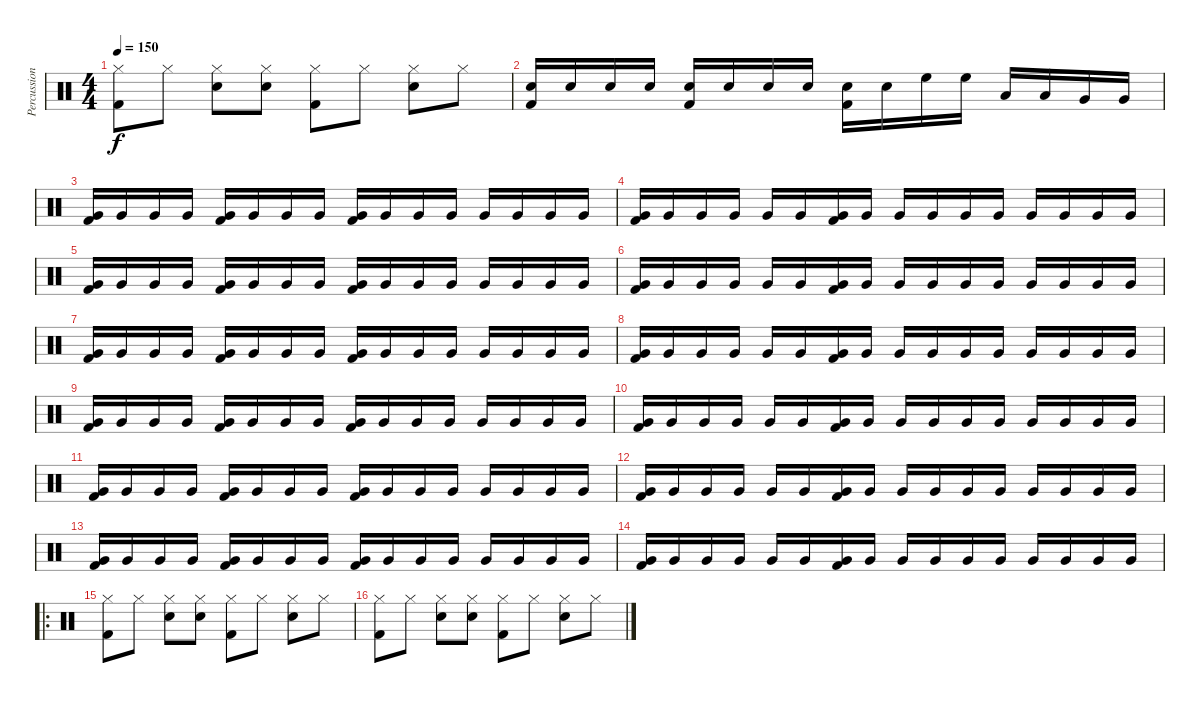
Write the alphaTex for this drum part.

\track ("Percussion" "Percussion") {instrument percussion}
\staff {score}
\articulation defaults
\ts (4 4)
\tempo 150
\clef neutral
\ks c
("Hi-Hat (closed)" "Kick (hit) 2").8{dy f} "Hi-Hat (closed)".8 ("Hi-Hat (closed)" "Electric Snare (hit)").8 ("Hi-Hat (closed)" "Electric Snare (hit)").8 ("Hi-Hat (closed)" "Kick (hit) 2").8 "Hi-Hat (closed)".8 ("Hi-Hat (closed)" "Electric Snare (hit)").8 "Hi-Hat (closed)".8 |
("Electric Snare (hit)" "Kick (hit) 2").16 "Electric Snare (hit)".16 "Electric Snare (hit)".16 "Electric Snare (hit)".16 ("Electric Snare (hit)" "Kick (hit) 2").16 "Electric Snare (hit)".16 "Electric Snare (hit)".16 "Electric Snare (hit)".16 ("Electric Snare (hit)" "Kick (hit) 2").16 "Electric Snare (hit)".16 "High Floor Tom (hit)".16 "High Floor Tom (hit)".16 "Low Tom (hit)".16 "Low Tom (hit)".16 "Very Low Tom (hit)".16 "Very Low Tom (hit)".16 |
("Very Low Tom (hit)" "Kick (hit) 2").16 "Very Low Tom (hit)".16 "Very Low Tom (hit)".16 "Very Low Tom (hit)".16 ("Very Low Tom (hit)" "Kick (hit) 2").16 "Very Low Tom (hit)".16 "Very Low Tom (hit)".16 "Very Low Tom (hit)".16 ("Very Low Tom (hit)" "Kick (hit) 2").16 "Very Low Tom (hit)".16 "Very Low Tom (hit)".16 "Very Low Tom (hit)".16 "Very Low Tom (hit)".16 "Very Low Tom (hit)".16 "Very Low Tom (hit)".16 "Very Low Tom (hit)".16 |
("Very Low Tom (hit)" "Kick (hit) 2").16 "Very Low Tom (hit)".16 "Very Low Tom (hit)".16 "Very Low Tom (hit)".16 "Very Low Tom (hit)".16 "Very Low Tom (hit)".16 ("Very Low Tom (hit)" "Kick (hit) 2").16 "Very Low Tom (hit)".16 "Very Low Tom (hit)".16 "Very Low Tom (hit)".16 "Very Low Tom (hit)".16 "Very Low Tom (hit)".16 "Very Low Tom (hit)".16 "Very Low Tom (hit)".16 "Very Low Tom (hit)".16 "Very Low Tom (hit)".16 |
("Very Low Tom (hit)" "Kick (hit) 2").16 "Very Low Tom (hit)".16 "Very Low Tom (hit)".16 "Very Low Tom (hit)".16 ("Very Low Tom (hit)" "Kick (hit) 2").16 "Very Low Tom (hit)".16 "Very Low Tom (hit)".16 "Very Low Tom (hit)".16 ("Very Low Tom (hit)" "Kick (hit) 2").16 "Very Low Tom (hit)".16 "Very Low Tom (hit)".16 "Very Low Tom (hit)".16 "Very Low Tom (hit)".16 "Very Low Tom (hit)".16 "Very Low Tom (hit)".16 "Very Low Tom (hit)".16 |
("Very Low Tom (hit)" "Kick (hit) 2").16 "Very Low Tom (hit)".16 "Very Low Tom (hit)".16 "Very Low Tom (hit)".16 "Very Low Tom (hit)".16 "Very Low Tom (hit)".16 ("Very Low Tom (hit)" "Kick (hit) 2").16 "Very Low Tom (hit)".16 "Very Low Tom (hit)".16 "Very Low Tom (hit)".16 "Very Low Tom (hit)".16 "Very Low Tom (hit)".16 "Very Low Tom (hit)".16 "Very Low Tom (hit)".16 "Very Low Tom (hit)".16 "Very Low Tom (hit)".16 |
("Very Low Tom (hit)" "Kick (hit) 2").16 "Very Low Tom (hit)".16 "Very Low Tom (hit)".16 "Very Low Tom (hit)".16 ("Very Low Tom (hit)" "Kick (hit) 2").16 "Very Low Tom (hit)".16 "Very Low Tom (hit)".16 "Very Low Tom (hit)".16 ("Very Low Tom (hit)" "Kick (hit) 2").16 "Very Low Tom (hit)".16 "Very Low Tom (hit)".16 "Very Low Tom (hit)".16 "Very Low Tom (hit)".16 "Very Low Tom (hit)".16 "Very Low Tom (hit)".16 "Very Low Tom (hit)".16 |
("Very Low Tom (hit)" "Kick (hit) 2").16 "Very Low Tom (hit)".16 "Very Low Tom (hit)".16 "Very Low Tom (hit)".16 "Very Low Tom (hit)".16 "Very Low Tom (hit)".16 ("Very Low Tom (hit)" "Kick (hit) 2").16 "Very Low Tom (hit)".16 "Very Low Tom (hit)".16 "Very Low Tom (hit)".16 "Very Low Tom (hit)".16 "Very Low Tom (hit)".16 "Very Low Tom (hit)".16 "Very Low Tom (hit)".16 "Very Low Tom (hit)".16 "Very Low Tom (hit)".16 |
("Very Low Tom (hit)" "Kick (hit) 2").16 "Very Low Tom (hit)".16 "Very Low Tom (hit)".16 "Very Low Tom (hit)".16 ("Very Low Tom (hit)" "Kick (hit) 2").16 "Very Low Tom (hit)".16 "Very Low Tom (hit)".16 "Very Low Tom (hit)".16 ("Very Low Tom (hit)" "Kick (hit) 2").16 "Very Low Tom (hit)".16 "Very Low Tom (hit)".16 "Very Low Tom (hit)".16 "Very Low Tom (hit)".16 "Very Low Tom (hit)".16 "Very Low Tom (hit)".16 "Very Low Tom (hit)".16 |
("Very Low Tom (hit)" "Kick (hit) 2").16 "Very Low Tom (hit)".16 "Very Low Tom (hit)".16 "Very Low Tom (hit)".16 "Very Low Tom (hit)".16 "Very Low Tom (hit)".16 ("Very Low Tom (hit)" "Kick (hit) 2").16 "Very Low Tom (hit)".16 "Very Low Tom (hit)".16 "Very Low Tom (hit)".16 "Very Low Tom (hit)".16 "Very Low Tom (hit)".16 "Very Low Tom (hit)".16 "Very Low Tom (hit)".16 "Very Low Tom (hit)".16 "Very Low Tom (hit)".16 |
("Very Low Tom (hit)" "Kick (hit) 2").16 "Very Low Tom (hit)".16 "Very Low Tom (hit)".16 "Very Low Tom (hit)".16 ("Very Low Tom (hit)" "Kick (hit) 2").16 "Very Low Tom (hit)".16 "Very Low Tom (hit)".16 "Very Low Tom (hit)".16 ("Very Low Tom (hit)" "Kick (hit) 2").16 "Very Low Tom (hit)".16 "Very Low Tom (hit)".16 "Very Low Tom (hit)".16 "Very Low Tom (hit)".16 "Very Low Tom (hit)".16 "Very Low Tom (hit)".16 "Very Low Tom (hit)".16 |
("Very Low Tom (hit)" "Kick (hit) 2").16 "Very Low Tom (hit)".16 "Very Low Tom (hit)".16 "Very Low Tom (hit)".16 "Very Low Tom (hit)".16 "Very Low Tom (hit)".16 ("Very Low Tom (hit)" "Kick (hit) 2").16 "Very Low Tom (hit)".16 "Very Low Tom (hit)".16 "Very Low Tom (hit)".16 "Very Low Tom (hit)".16 "Very Low Tom (hit)".16 "Very Low Tom (hit)".16 "Very Low Tom (hit)".16 "Very Low Tom (hit)".16 "Very Low Tom (hit)".16 |
("Very Low Tom (hit)" "Kick (hit) 2").16 "Very Low Tom (hit)".16 "Very Low Tom (hit)".16 "Very Low Tom (hit)".16 ("Very Low Tom (hit)" "Kick (hit) 2").16 "Very Low Tom (hit)".16 "Very Low Tom (hit)".16 "Very Low Tom (hit)".16 ("Very Low Tom (hit)" "Kick (hit) 2").16 "Very Low Tom (hit)".16 "Very Low Tom (hit)".16 "Very Low Tom (hit)".16 "Very Low Tom (hit)".16 "Very Low Tom (hit)".16 "Very Low Tom (hit)".16 "Very Low Tom (hit)".16 |
("Very Low Tom (hit)" "Kick (hit) 2").16 "Very Low Tom (hit)".16 "Very Low Tom (hit)".16 "Very Low Tom (hit)".16 "Very Low Tom (hit)".16 "Very Low Tom (hit)".16 ("Very Low Tom (hit)" "Kick (hit) 2").16 "Very Low Tom (hit)".16 "Very Low Tom (hit)".16 "Very Low Tom (hit)".16 "Very Low Tom (hit)".16 "Very Low Tom (hit)".16 "Very Low Tom (hit)".16 "Very Low Tom (hit)".16 "Very Low Tom (hit)".16 "Very Low Tom (hit)".16 |
\ro
("Hi-Hat (closed)" "Kick (hit) 2").8 "Hi-Hat (closed)".8 ("Hi-Hat (closed)" "Electric Snare (hit)").8 ("Hi-Hat (closed)" "Electric Snare (hit)").8 ("Hi-Hat (closed)" "Kick (hit) 2").8 "Hi-Hat (closed)".8 ("Hi-Hat (closed)" "Electric Snare (hit)").8 "Hi-Hat (closed)".8 |
("Hi-Hat (closed)" "Kick (hit) 2").8 "Hi-Hat (closed)".8 ("Hi-Hat (closed)" "Electric Snare (hit)").8 ("Hi-Hat (closed)" "Electric Snare (hit)").8 ("Hi-Hat (closed)" "Kick (hit) 2").8 "Hi-Hat (closed)".8 ("Hi-Hat (closed)" "Electric Snare (hit)").8 "Hi-Hat (closed)".8
